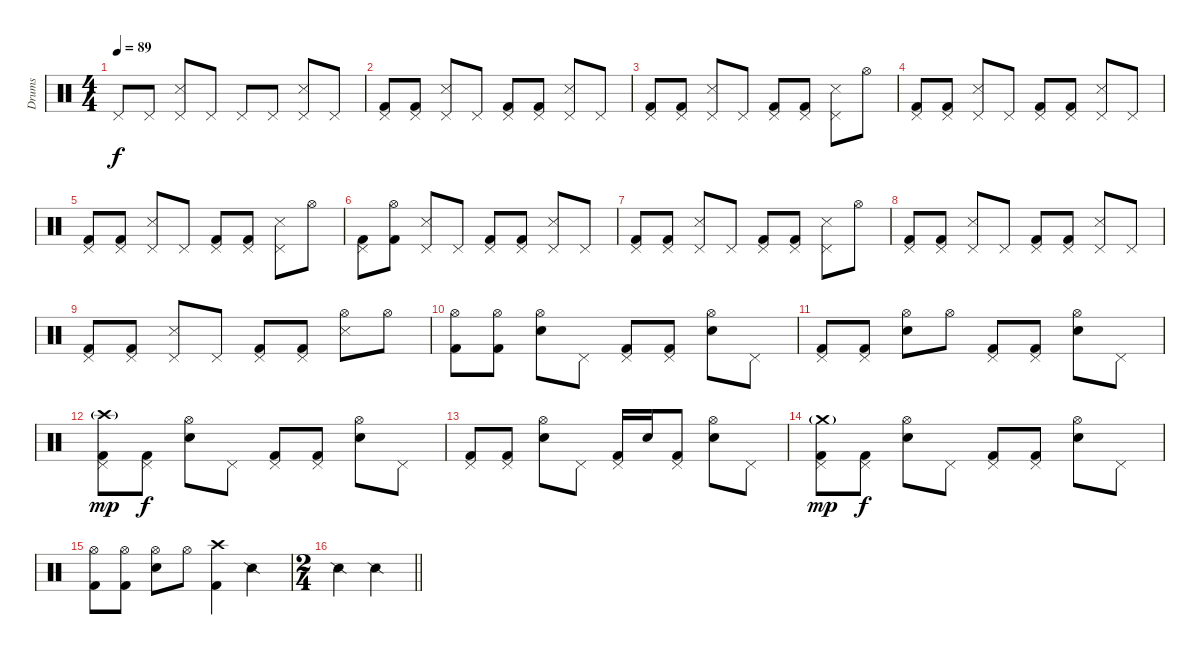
\track ("Drums" "Drums") {instrument percussion}
\staff {score}
\articulation defaults
\ts (4 4)
\tempo 89
\clef neutral
\ks c "Pedal Hi-Hat (hit)".8{dy f} "Pedal Hi-Hat (hit)".8
("Pedal Hi-Hat (hit)" "Snare (side stick) 3").8 "Pedal Hi-Hat (hit)".8 "Pedal Hi-Hat (hit)".8 "Pedal Hi-Hat (hit)".8 ("Pedal Hi-Hat (hit)" "Snare (side stick) 3").8 "Pedal Hi-Hat (hit)".8 |
("Pedal Hi-Hat (hit)" "Kick (hit) 2").8 ("Pedal Hi-Hat (hit)" "Kick (hit) 2").8 ("Pedal Hi-Hat (hit)" "Snare (side stick) 3").8 "Pedal Hi-Hat (hit)".8 ("Pedal Hi-Hat (hit)" "Kick (hit) 2").8 ("Pedal Hi-Hat (hit)" "Kick (hit) 2").8 ("Pedal Hi-Hat (hit)" "Snare (side stick) 3").8 "Pedal Hi-Hat (hit)".8 |
("Pedal Hi-Hat (hit)" "Kick (hit) 2").8 ("Pedal Hi-Hat (hit)" "Kick (hit) 2").8 ("Pedal Hi-Hat (hit)" "Snare (side stick) 3").8 "Pedal Hi-Hat (hit)".8 ("Pedal Hi-Hat (hit)" "Kick (hit) 2").8 ("Pedal Hi-Hat (hit)" "Kick (hit) 2").8 ("Pedal Hi-Hat (hit)" "Snare (side stick) 3").8 "Hi-Hat (open)".8 |
("Pedal Hi-Hat (hit)" "Kick (hit) 2").8 ("Pedal Hi-Hat (hit)" "Kick (hit) 2").8 ("Pedal Hi-Hat (hit)" "Snare (side stick) 3").8 "Pedal Hi-Hat (hit)".8 ("Pedal Hi-Hat (hit)" "Kick (hit) 2").8 ("Pedal Hi-Hat (hit)" "Kick (hit) 2").8 ("Pedal Hi-Hat (hit)" "Snare (side stick) 3").8 "Pedal Hi-Hat (hit)".8 |
("Pedal Hi-Hat (hit)" "Kick (hit) 2").8 ("Pedal Hi-Hat (hit)" "Kick (hit) 2").8 ("Pedal Hi-Hat (hit)" "Snare (side stick) 3").8 "Pedal Hi-Hat (hit)".8 ("Pedal Hi-Hat (hit)" "Kick (hit) 2").8 ("Pedal Hi-Hat (hit)" "Kick (hit) 2").8 ("Pedal Hi-Hat (hit)" "Snare (side stick) 3").8 "Hi-Hat (open)".8 |
("Pedal Hi-Hat (hit)" "Kick (hit) 2").8 ("Hi-Hat (open)" "Kick (hit) 2").8 ("Pedal Hi-Hat (hit)" "Snare (side stick) 3").8 "Pedal Hi-Hat (hit)".8 ("Pedal Hi-Hat (hit)" "Kick (hit) 2").8 ("Pedal Hi-Hat (hit)" "Kick (hit) 2").8 ("Pedal Hi-Hat (hit)" "Snare (side stick) 3").8 "Pedal Hi-Hat (hit)".8 |
("Pedal Hi-Hat (hit)" "Kick (hit) 2").8 ("Pedal Hi-Hat (hit)" "Kick (hit) 2").8 ("Pedal Hi-Hat (hit)" "Snare (side stick) 3").8 "Pedal Hi-Hat (hit)".8 ("Pedal Hi-Hat (hit)" "Kick (hit) 2").8 ("Pedal Hi-Hat (hit)" "Kick (hit) 2").8 ("Pedal Hi-Hat (hit)" "Snare (side stick) 3").8 "Hi-Hat (open)".8 |
("Pedal Hi-Hat (hit)" "Kick (hit) 2").8 ("Pedal Hi-Hat (hit)" "Kick (hit) 2").8 ("Pedal Hi-Hat (hit)" "Snare (side stick) 3").8 "Pedal Hi-Hat (hit)".8 ("Pedal Hi-Hat (hit)" "Kick (hit) 2").8 ("Pedal Hi-Hat (hit)" "Kick (hit) 2").8 ("Pedal Hi-Hat (hit)" "Snare (side stick) 3").8 "Pedal Hi-Hat (hit)".8 |
("Pedal Hi-Hat (hit)" "Kick (hit) 2").8 ("Pedal Hi-Hat (hit)" "Kick (hit) 2").8 ("Pedal Hi-Hat (hit)" "Snare (side stick) 3").8 "Pedal Hi-Hat (hit)".8 ("Pedal Hi-Hat (hit)" "Kick (hit) 2").8 ("Pedal Hi-Hat (hit)" "Kick (hit) 2").8 ("Hi-Hat (open)" "Snare (side stick) 3").8 "Hi-Hat (open)".8 |
("Hi-Hat (open)" "Kick (hit) 2").8 ("Hi-Hat (open)" "Kick (hit) 2").8 ("Hi-Hat (open)" "Electric Snare (hit)").8 "Pedal Hi-Hat (hit)".8 ("Pedal Hi-Hat (hit)" "Kick (hit) 2").8 ("Pedal Hi-Hat (hit)" "Kick (hit) 2").8 ("Hi-Hat (open)" "Electric Snare (hit)").8 "Pedal Hi-Hat (hit)".8 |
("Pedal Hi-Hat (hit)" "Kick (hit) 2").8 ("Pedal Hi-Hat (hit)" "Kick (hit) 2").8 ("Hi-Hat (open)" "Electric Snare (hit)").8 "Hi-Hat (open)".8 ("Pedal Hi-Hat (hit)" "Kick (hit) 2").8 ("Pedal Hi-Hat (hit)" "Kick (hit) 2").8 ("Hi-Hat (open)" "Electric Snare (hit)").8 "Pedal Hi-Hat (hit)".8 |
("Crash high (hit)"{g} "Pedal Hi-Hat (hit)" "Kick (hit) 2").8{dy mp} ("Pedal Hi-Hat (hit)" "Kick (hit) 2").8{dy f} ("Hi-Hat (open)" "Electric Snare (hit)").8 "Pedal Hi-Hat (hit)".8 ("Pedal Hi-Hat (hit)" "Kick (hit) 2").8 ("Pedal Hi-Hat (hit)" "Kick (hit) 2").8 ("Hi-Hat (open)" "Electric Snare (hit)").8 "Pedal Hi-Hat (hit)".8 |
("Pedal Hi-Hat (hit)" "Kick (hit) 2").8 ("Pedal Hi-Hat (hit)" "Kick (hit) 2").8 ("Hi-Hat (open)" "Electric Snare (hit)").8 "Pedal Hi-Hat (hit)".8 ("Pedal Hi-Hat (hit)" "Kick (hit) 2").16 "Electric Snare (hit)".16 ("Pedal Hi-Hat (hit)" "Kick (hit) 2").8 ("Hi-Hat (open)" "Electric Snare (hit)").8 "Pedal Hi-Hat (hit)".8 |
("Crash medium (hit)"{g} "Pedal Hi-Hat (hit)" "Kick (hit) 2").8{dy mp} ("Pedal Hi-Hat (hit)" "Kick (hit) 2").8{dy f} ("Hi-Hat (open)" "Electric Snare (hit)").8 "Pedal Hi-Hat (hit)".8 ("Pedal Hi-Hat (hit)" "Kick (hit) 2").8 ("Pedal Hi-Hat (hit)" "Kick (hit) 2").8 ("Hi-Hat (open)" "Electric Snare (hit)").8 "Pedal Hi-Hat (hit)".8 |
("Hi-Hat (open)" "Kick (hit) 2").8 ("Hi-Hat (open)" "Kick (hit) 2").8 ("Hi-Hat (open)" "Electric Snare (hit)").8 "Hi-Hat (open)".8 ("Crash high (hit)" "Kick (hit) 2").4 "Snare (side stick) 2".4 |
\ts (2 4)
\barLineRight lightlight "Snare (side stick) 2".4 "Snare (side stick) 2".4
